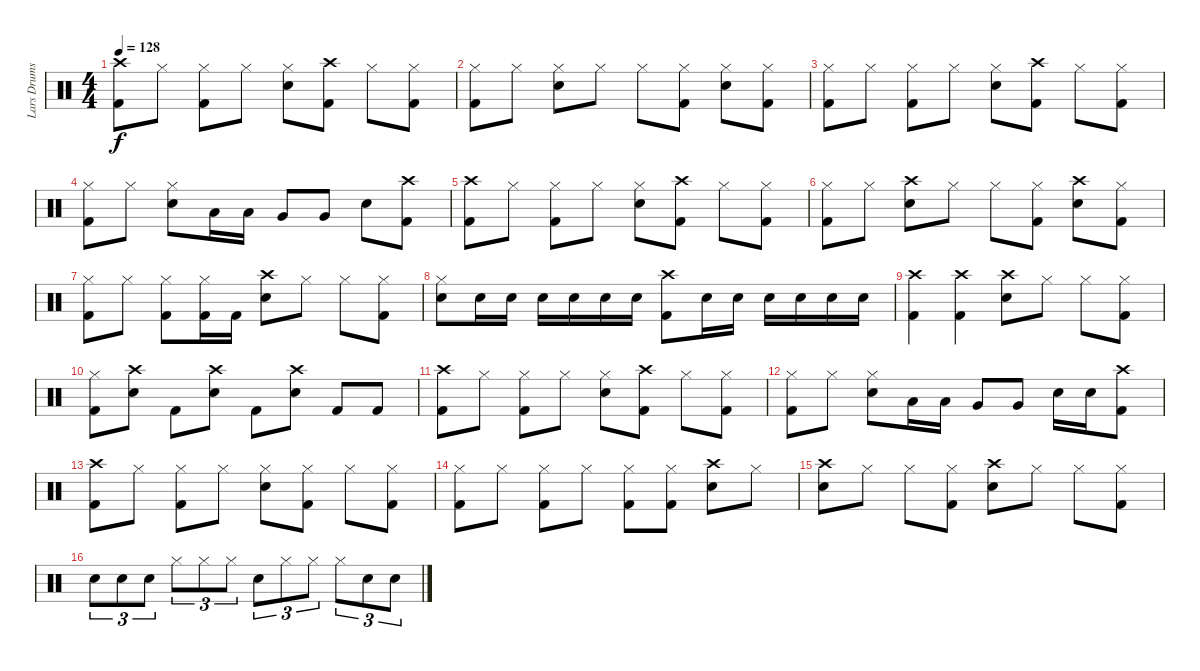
\track ("Lars Drums" "Lars Drums") {instrument percussion}
\staff {score}
\articulation defaults
\ts (4 4)
\tempo 128
\clef neutral
\ks c
("Crash high (hit)" "Kick (hit) 2").8{dy f} "Hi-Hat (closed)".8 ("Hi-Hat (closed)" "Kick (hit) 2").8 "Hi-Hat (closed)".8 ("Hi-Hat (closed)" "Electric Snare (hit)").8 ("Crash high (hit)" "Kick (hit) 2").8 "Hi-Hat (closed)".8 ("Hi-Hat (closed)" "Kick (hit) 2").8 |
("Hi-Hat (closed)" "Kick (hit) 2").8 "Hi-Hat (closed)".8 ("Hi-Hat (closed)" "Electric Snare (hit)").8 "Hi-Hat (closed)".8 "Hi-Hat (closed)".8 ("Hi-Hat (closed)" "Kick (hit) 2").8 ("Hi-Hat (closed)" "Electric Snare (hit)").8 ("Hi-Hat (closed)" "Kick (hit) 2").8 |
("Hi-Hat (closed)" "Kick (hit) 2").8 "Hi-Hat (closed)".8 ("Hi-Hat (closed)" "Kick (hit) 2").8 "Hi-Hat (closed)".8 ("Hi-Hat (closed)" "Electric Snare (hit)").8 ("Crash high (hit)" "Kick (hit) 2").8 "Hi-Hat (closed)".8 ("Hi-Hat (closed)" "Kick (hit) 2").8 |
("Hi-Hat (closed)" "Kick (hit) 2").8 "Hi-Hat (closed)".8 ("Hi-Hat (closed)" "Electric Snare (hit)").8 "Low Floor Tom (hit)".16 "Low Floor Tom (hit)".16 "Very Low Tom (hit)".8 "Very Low Tom (hit)".8 "Electric Snare (hit)".8 ("Crash high (hit)" "Kick (hit) 2").8 |
("Crash high (hit)" "Kick (hit) 2").8 "Hi-Hat (closed)".8 ("Hi-Hat (closed)" "Kick (hit) 2").8 "Hi-Hat (closed)".8 ("Hi-Hat (closed)" "Electric Snare (hit)").8 ("Crash high (hit)" "Kick (hit) 2").8 "Hi-Hat (closed)".8 ("Hi-Hat (closed)" "Kick (hit) 2").8 |
("Hi-Hat (closed)" "Kick (hit) 2").8 "Hi-Hat (closed)".8 ("Crash high (hit)" "Electric Snare (hit)").8 "Hi-Hat (closed)".8 "Hi-Hat (closed)".8 ("Hi-Hat (closed)" "Kick (hit) 2").8 ("Crash high (hit)" "Electric Snare (hit)").8 ("Hi-Hat (closed)" "Kick (hit) 2").8 |
("Hi-Hat (closed)" "Kick (hit) 2").8 "Hi-Hat (closed)".8 ("Hi-Hat (closed)" "Kick (hit) 2").8 ("Hi-Hat (closed)" "Kick (hit) 2").16 "Kick (hit) 2".16 ("Crash high (hit)" "Electric Snare (hit)").8 "Hi-Hat (closed)".8 "Hi-Hat (closed)".8 ("Hi-Hat (closed)" "Kick (hit) 2").8 |
("Hi-Hat (closed)" "Electric Snare (hit)").8 "Electric Snare (hit)".16 "Electric Snare (hit)".16 "Electric Snare (hit)".16 "Electric Snare (hit)".16 "Electric Snare (hit)".16 "Electric Snare (hit)".16 ("Crash high (hit)" "Kick (hit) 2").8 "Electric Snare (hit)".16 "Electric Snare (hit)".16 "Electric Snare (hit)".16 "Electric Snare (hit)".16 "Electric Snare (hit)".16 "Electric Snare (hit)".16 |
("Crash high (hit)" "Kick (hit) 2").4 ("Crash high (hit)" "Kick (hit) 2").4 ("Crash high (hit)" "Electric Snare (hit)").8 "Hi-Hat (closed)".8 "Hi-Hat (closed)".8 ("Hi-Hat (closed)" "Kick (hit) 2").8 |
("Hi-Hat (closed)" "Kick (hit) 2").8 ("Crash high (hit)" "Electric Snare (hit)").8 "Kick (hit) 2".8 ("Crash high (hit)" "Electric Snare (hit)").8 "Kick (hit) 2".8 ("Crash high (hit)" "Electric Snare (hit)").8 "Kick (hit) 2".8 "Kick (hit) 2".8 |
("Crash high (hit)" "Kick (hit) 2").8 "Hi-Hat (closed)".8 ("Hi-Hat (closed)" "Kick (hit) 2").8 "Hi-Hat (closed)".8 ("Hi-Hat (closed)" "Electric Snare (hit)").8 ("Crash high (hit)" "Kick (hit) 2").8 "Hi-Hat (closed)".8 ("Hi-Hat (closed)" "Kick (hit) 2").8 |
("Hi-Hat (closed)" "Kick (hit) 2").8 "Hi-Hat (closed)".8 ("Hi-Hat (closed)" "Electric Snare (hit)").8 "Low Floor Tom (hit)".16 "Low Floor Tom (hit)".16 "Very Low Tom (hit)".8 "Very Low Tom (hit)".8 "Electric Snare (hit)".16 "Electric Snare (hit)".16 ("Crash high (hit)" "Kick (hit) 2").8 |
("Crash high (hit)" "Kick (hit) 2").8 "Hi-Hat (closed)".8 ("Hi-Hat (closed)" "Kick (hit) 2").8 "Hi-Hat (closed)".8 ("Hi-Hat (closed)" "Electric Snare (hit)").8 ("Hi-Hat (closed)" "Kick (hit) 2").8 "Hi-Hat (closed)".8 ("Hi-Hat (closed)" "Kick (hit) 2").8 |
("Hi-Hat (closed)" "Kick (hit) 2").8 "Hi-Hat (closed)".8 ("Hi-Hat (closed)" "Kick (hit) 2").8 "Hi-Hat (closed)".8 ("Hi-Hat (closed)" "Kick (hit) 2").8 ("Hi-Hat (closed)" "Kick (hit) 2").8 ("Crash high (hit)" "Electric Snare (hit)").8 "Hi-Hat (closed)".8 |
("Crash high (hit)" "Electric Snare (hit)").8 "Hi-Hat (closed)".8 "Hi-Hat (closed)".8 ("Hi-Hat (closed)" "Kick (hit) 2").8 ("Crash high (hit)" "Electric Snare (hit)").8 "Hi-Hat (closed)".8 "Hi-Hat (closed)".8 ("Hi-Hat (closed)" "Kick (hit) 2").8 |
"Electric Snare (hit)".8{tu (3 2)} "Electric Snare (hit)".8{tu (3 2)} "Electric Snare (hit)".8{tu (3 2)} "Hi-Hat (closed)".8{tu (3 2)} "Hi-Hat (closed)".8{tu (3 2)} "Hi-Hat (closed)".8{tu (3 2)} "Electric Snare (hit)".8{tu (3 2)} "Hi-Hat (closed)".8{tu (3 2)} "Hi-Hat (closed)".8{tu (3 2)} "Hi-Hat (closed)".8{tu (3 2)} "Electric Snare (hit)".8{tu (3 2)} "Electric Snare (hit)".8{tu (3 2)}
